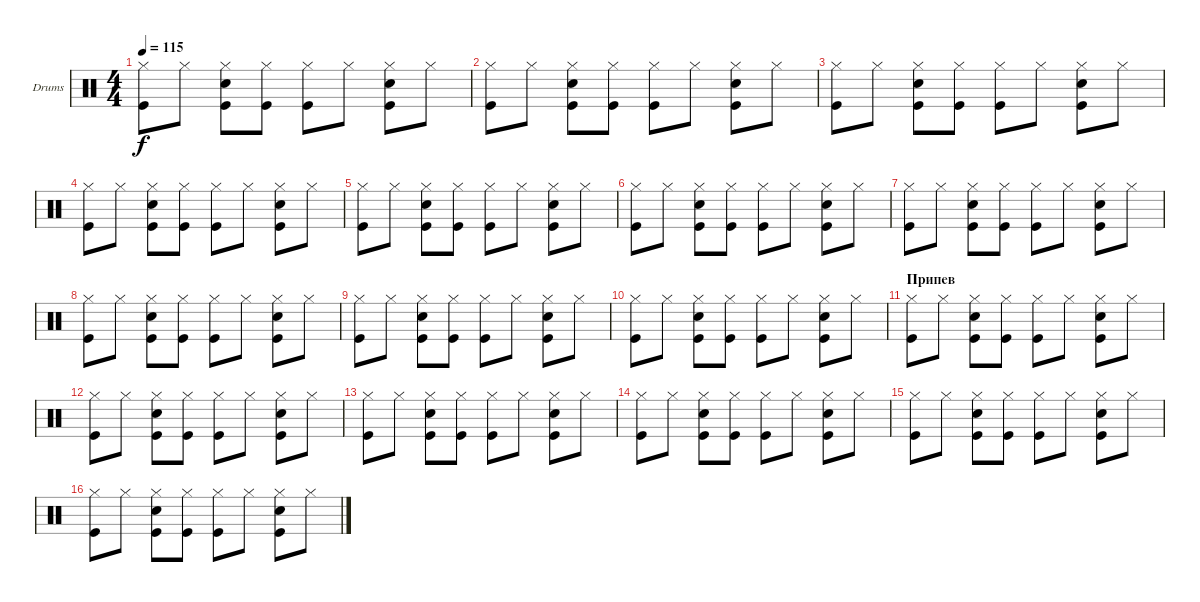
\defaultSystemsLayout 4
\bracketExtendMode groupsimilarinstruments
\firstSystemTrackNameOrientation horizontal
\otherSystemsTrackNameOrientation horizontal
\track ("Drumkit" "Drums") {instrument percussion}
\staff {score}
\articulation defaults
\ts (4 4)
\tempo 115
\clef neutral
\ks c
("Hi-Hat (closed)" "Kick (hit)").8{dy f} "Hi-Hat (closed)".8 ("Hi-Hat (closed)" "Snare (hit) 2" "Kick (hit)").8 ("Hi-Hat (closed)" "Kick (hit)").8 ("Hi-Hat (closed)" "Kick (hit)").8 "Hi-Hat (closed)".8 ("Hi-Hat (closed)" "Kick (hit)" "Snare (hit) 2").8 "Hi-Hat (closed)".8 |
("Hi-Hat (closed)" "Kick (hit)").8 "Hi-Hat (closed)".8 ("Hi-Hat (closed)" "Snare (hit) 2" "Kick (hit)").8 ("Hi-Hat (closed)" "Kick (hit)").8 ("Hi-Hat (closed)" "Kick (hit)").8 "Hi-Hat (closed)".8 ("Hi-Hat (closed)" "Kick (hit)" "Snare (hit) 2").8 "Hi-Hat (closed)".8 |
("Hi-Hat (closed)" "Kick (hit)").8 "Hi-Hat (closed)".8 ("Hi-Hat (closed)" "Snare (hit) 2" "Kick (hit)").8 ("Hi-Hat (closed)" "Kick (hit)").8 ("Hi-Hat (closed)" "Kick (hit)").8 "Hi-Hat (closed)".8 ("Hi-Hat (closed)" "Kick (hit)" "Snare (hit) 2").8 "Hi-Hat (closed)".8 |
("Hi-Hat (closed)" "Kick (hit)").8 "Hi-Hat (closed)".8 ("Hi-Hat (closed)" "Snare (hit) 2" "Kick (hit)").8 ("Hi-Hat (closed)" "Kick (hit)").8 ("Hi-Hat (closed)" "Kick (hit)").8 "Hi-Hat (closed)".8 ("Hi-Hat (closed)" "Kick (hit)" "Snare (hit) 2").8 "Hi-Hat (closed)".8 |
("Hi-Hat (closed)" "Kick (hit)").8 "Hi-Hat (closed)".8 ("Hi-Hat (closed)" "Snare (hit) 2" "Kick (hit)").8 ("Hi-Hat (closed)" "Kick (hit)").8 ("Hi-Hat (closed)" "Kick (hit)").8 "Hi-Hat (closed)".8 ("Hi-Hat (closed)" "Kick (hit)" "Snare (hit) 2").8 "Hi-Hat (closed)".8 |
("Hi-Hat (closed)" "Kick (hit)").8 "Hi-Hat (closed)".8 ("Hi-Hat (closed)" "Snare (hit) 2" "Kick (hit)").8 ("Hi-Hat (closed)" "Kick (hit)").8 ("Hi-Hat (closed)" "Kick (hit)").8 "Hi-Hat (closed)".8 ("Hi-Hat (closed)" "Kick (hit)" "Snare (hit) 2").8 "Hi-Hat (closed)".8 |
("Hi-Hat (closed)" "Kick (hit)").8 "Hi-Hat (closed)".8 ("Hi-Hat (closed)" "Snare (hit) 2" "Kick (hit)").8 ("Hi-Hat (closed)" "Kick (hit)").8 ("Hi-Hat (closed)" "Kick (hit)").8 "Hi-Hat (closed)".8 ("Hi-Hat (closed)" "Kick (hit)" "Snare (hit) 2").8 "Hi-Hat (closed)".8 |
("Hi-Hat (closed)" "Kick (hit)").8 "Hi-Hat (closed)".8 ("Hi-Hat (closed)" "Snare (hit) 2" "Kick (hit)").8 ("Hi-Hat (closed)" "Kick (hit)").8 ("Hi-Hat (closed)" "Kick (hit)").8 "Hi-Hat (closed)".8 ("Hi-Hat (closed)" "Kick (hit)" "Snare (hit) 2").8 "Hi-Hat (closed)".8 |
("Hi-Hat (closed)" "Kick (hit)").8 "Hi-Hat (closed)".8 ("Hi-Hat (closed)" "Snare (hit) 2" "Kick (hit)").8 ("Hi-Hat (closed)" "Kick (hit)").8 ("Hi-Hat (closed)" "Kick (hit)").8 "Hi-Hat (closed)".8 ("Hi-Hat (closed)" "Kick (hit)" "Snare (hit) 2").8 "Hi-Hat (closed)".8 |
("Hi-Hat (closed)" "Kick (hit)").8 "Hi-Hat (closed)".8 ("Hi-Hat (closed)" "Snare (hit) 2" "Kick (hit)").8 ("Hi-Hat (closed)" "Kick (hit)").8 ("Hi-Hat (closed)" "Kick (hit)").8 "Hi-Hat (closed)".8 ("Hi-Hat (closed)" "Kick (hit)" "Snare (hit) 2").8 "Hi-Hat (closed)".8 |
\section ("" "Припев")
("Hi-Hat (closed)" "Kick (hit)").8 "Hi-Hat (closed)".8 ("Hi-Hat (closed)" "Snare (hit) 2" "Kick (hit)").8 ("Hi-Hat (closed)" "Kick (hit)").8 ("Hi-Hat (closed)" "Kick (hit)").8 "Hi-Hat (closed)".8 ("Hi-Hat (closed)" "Kick (hit)" "Snare (hit) 2").8 "Hi-Hat (closed)".8 |
("Hi-Hat (closed)" "Kick (hit)").8 "Hi-Hat (closed)".8 ("Hi-Hat (closed)" "Snare (hit) 2" "Kick (hit)").8 ("Hi-Hat (closed)" "Kick (hit)").8 ("Hi-Hat (closed)" "Kick (hit)").8 "Hi-Hat (closed)".8 ("Hi-Hat (closed)" "Kick (hit)" "Snare (hit) 2").8 "Hi-Hat (closed)".8 |
("Hi-Hat (closed)" "Kick (hit)").8 "Hi-Hat (closed)".8 ("Hi-Hat (closed)" "Snare (hit) 2" "Kick (hit)").8 ("Hi-Hat (closed)" "Kick (hit)").8 ("Hi-Hat (closed)" "Kick (hit)").8 "Hi-Hat (closed)".8 ("Hi-Hat (closed)" "Kick (hit)" "Snare (hit) 2").8 "Hi-Hat (closed)".8 |
("Hi-Hat (closed)" "Kick (hit)").8 "Hi-Hat (closed)".8 ("Hi-Hat (closed)" "Snare (hit) 2" "Kick (hit)").8 ("Hi-Hat (closed)" "Kick (hit)").8 ("Hi-Hat (closed)" "Kick (hit)").8 "Hi-Hat (closed)".8 ("Hi-Hat (closed)" "Kick (hit)" "Snare (hit) 2").8 "Hi-Hat (closed)".8 |
("Hi-Hat (closed)" "Kick (hit)").8 "Hi-Hat (closed)".8 ("Hi-Hat (closed)" "Snare (hit) 2" "Kick (hit)").8 ("Hi-Hat (closed)" "Kick (hit)").8 ("Hi-Hat (closed)" "Kick (hit)").8 "Hi-Hat (closed)".8 ("Hi-Hat (closed)" "Kick (hit)" "Snare (hit) 2").8 "Hi-Hat (closed)".8 |
("Hi-Hat (closed)" "Kick (hit)").8 "Hi-Hat (closed)".8 ("Hi-Hat (closed)" "Snare (hit) 2" "Kick (hit)").8 ("Hi-Hat (closed)" "Kick (hit)").8 ("Hi-Hat (closed)" "Kick (hit)").8 "Hi-Hat (closed)".8 ("Hi-Hat (closed)" "Kick (hit)" "Snare (hit) 2").8 "Hi-Hat (closed)".8
